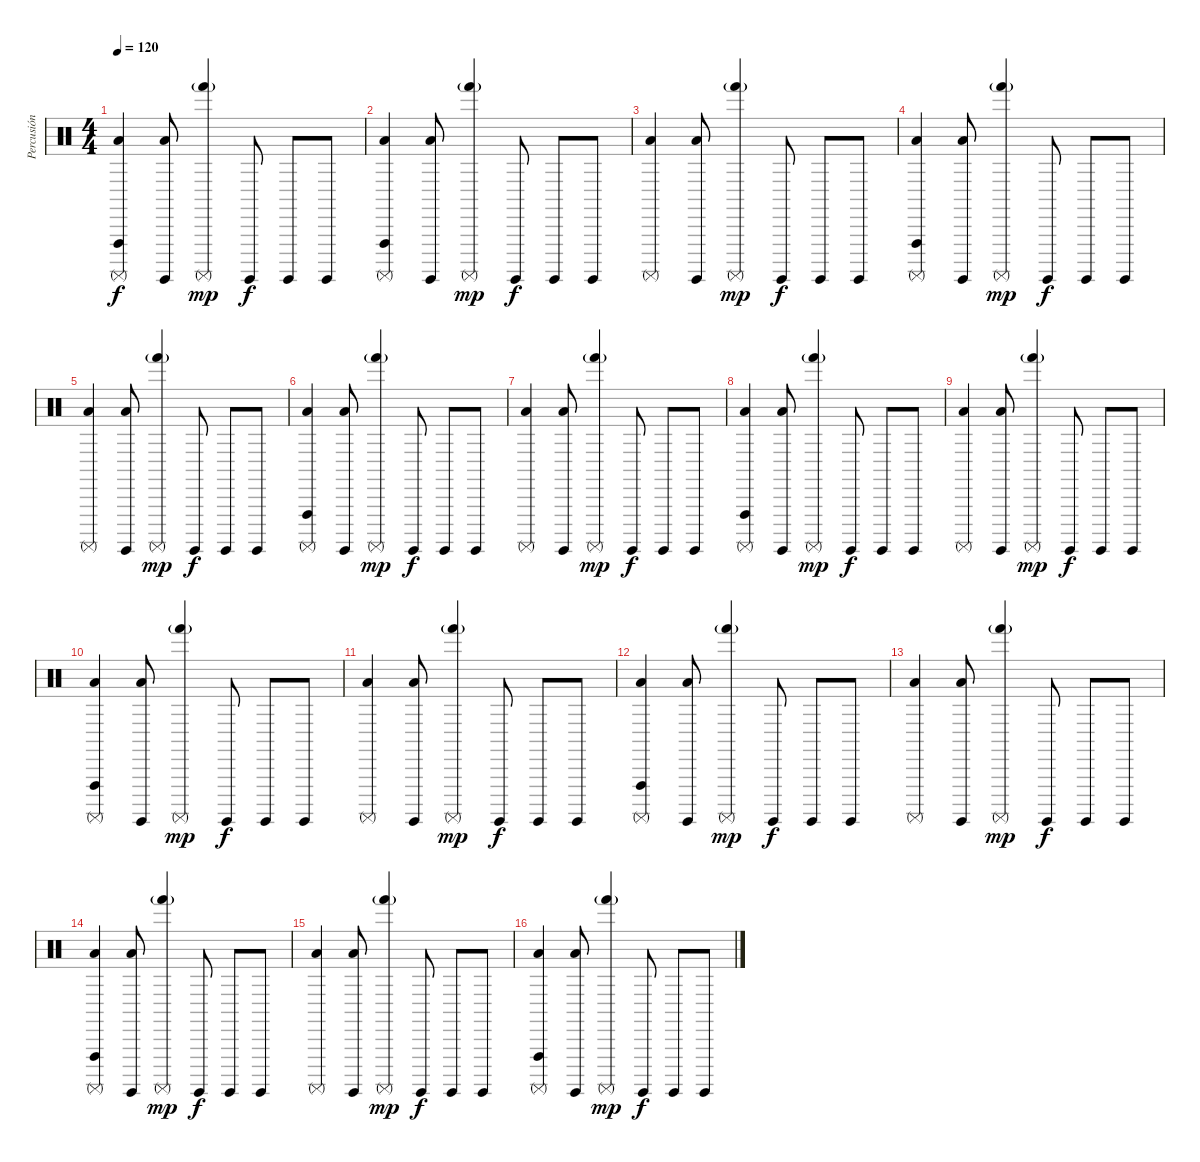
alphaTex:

\track ("Percusión" "Percusión") {instrument percussion}
\staff {score}
\articulation defaults
\ts (4 4)
\tempo 120
\clef neutral
\ks c
("Vibraslap (hit)" "Low Floor Tom (hit)" "Surdo (mute)").4{dy f} ("Low Floor Tom (hit)" "Surdo (hit)").8 ("Surdo (mute)" "Hand (hit)"{g}).4{dy mp} "Surdo (hit)".8{dy f} "Surdo (hit)".8 "Surdo (hit)".8 |
("Vibraslap (hit)" "Low Floor Tom (hit)" "Surdo (mute)").4 ("Low Floor Tom (hit)" "Surdo (hit)").8 ("Surdo (mute)" "Hand (hit)"{g}).4{dy mp} "Surdo (hit)".8{dy f} "Surdo (hit)".8 "Surdo (hit)".8 |
("Low Floor Tom (hit)" "Surdo (mute)").4 ("Low Floor Tom (hit)" "Surdo (hit)").8 ("Surdo (mute)" "Hand (hit)"{g}).4{dy mp} "Surdo (hit)".8{dy f} "Surdo (hit)".8 "Surdo (hit)".8 |
("Vibraslap (hit)" "Low Floor Tom (hit)" "Surdo (mute)").4 ("Low Floor Tom (hit)" "Surdo (hit)").8 ("Surdo (mute)" "Hand (hit)"{g}).4{dy mp} "Surdo (hit)".8{dy f} "Surdo (hit)".8 "Surdo (hit)".8 |
("Low Floor Tom (hit)" "Surdo (mute)").4 ("Low Floor Tom (hit)" "Surdo (hit)").8 ("Surdo (mute)" "Hand (hit)"{g}).4{dy mp} "Surdo (hit)".8{dy f} "Surdo (hit)".8 "Surdo (hit)".8 |
("Vibraslap (hit)" "Low Floor Tom (hit)" "Surdo (mute)").4 ("Low Floor Tom (hit)" "Surdo (hit)").8 ("Surdo (mute)" "Hand (hit)"{g}).4{dy mp} "Surdo (hit)".8{dy f} "Surdo (hit)".8 "Surdo (hit)".8 |
("Low Floor Tom (hit)" "Surdo (mute)").4 ("Low Floor Tom (hit)" "Surdo (hit)").8 ("Surdo (mute)" "Hand (hit)"{g}).4{dy mp} "Surdo (hit)".8{dy f} "Surdo (hit)".8 "Surdo (hit)".8 |
("Vibraslap (hit)" "Low Floor Tom (hit)" "Surdo (mute)").4 ("Low Floor Tom (hit)" "Surdo (hit)").8 ("Surdo (mute)" "Hand (hit)"{g}).4{dy mp} "Surdo (hit)".8{dy f} "Surdo (hit)".8 "Surdo (hit)".8 |
("Low Floor Tom (hit)" "Surdo (mute)").4 ("Low Floor Tom (hit)" "Surdo (hit)").8 ("Surdo (mute)" "Hand (hit)"{g}).4{dy mp} "Surdo (hit)".8{dy f} "Surdo (hit)".8 "Surdo (hit)".8 |
("Vibraslap (hit)" "Low Floor Tom (hit)" "Surdo (mute)").4 ("Low Floor Tom (hit)" "Surdo (hit)").8 ("Surdo (mute)" "Hand (hit)"{g}).4{dy mp} "Surdo (hit)".8{dy f} "Surdo (hit)".8 "Surdo (hit)".8 |
("Low Floor Tom (hit)" "Surdo (mute)").4 ("Low Floor Tom (hit)" "Surdo (hit)").8 ("Surdo (mute)" "Hand (hit)"{g}).4{dy mp} "Surdo (hit)".8{dy f} "Surdo (hit)".8 "Surdo (hit)".8 |
("Vibraslap (hit)" "Low Floor Tom (hit)" "Surdo (mute)").4 ("Low Floor Tom (hit)" "Surdo (hit)").8 ("Surdo (mute)" "Hand (hit)"{g}).4{dy mp} "Surdo (hit)".8{dy f} "Surdo (hit)".8 "Surdo (hit)".8 |
("Low Floor Tom (hit)" "Surdo (mute)").4 ("Low Floor Tom (hit)" "Surdo (hit)").8 ("Surdo (mute)" "Hand (hit)"{g}).4{dy mp} "Surdo (hit)".8{dy f} "Surdo (hit)".8 "Surdo (hit)".8 |
("Vibraslap (hit)" "Low Floor Tom (hit)" "Surdo (mute)").4 ("Low Floor Tom (hit)" "Surdo (hit)").8 ("Surdo (mute)" "Hand (hit)"{g}).4{dy mp} "Surdo (hit)".8{dy f} "Surdo (hit)".8 "Surdo (hit)".8 |
("Low Floor Tom (hit)" "Surdo (mute)").4 ("Low Floor Tom (hit)" "Surdo (hit)").8 ("Surdo (mute)" "Hand (hit)"{g}).4{dy mp} "Surdo (hit)".8{dy f} "Surdo (hit)".8 "Surdo (hit)".8 |
("Vibraslap (hit)" "Low Floor Tom (hit)" "Surdo (mute)").4 ("Low Floor Tom (hit)" "Surdo (hit)").8 ("Surdo (mute)" "Hand (hit)"{g}).4{dy mp} "Surdo (hit)".8{dy f} "Surdo (hit)".8 "Surdo (hit)".8
